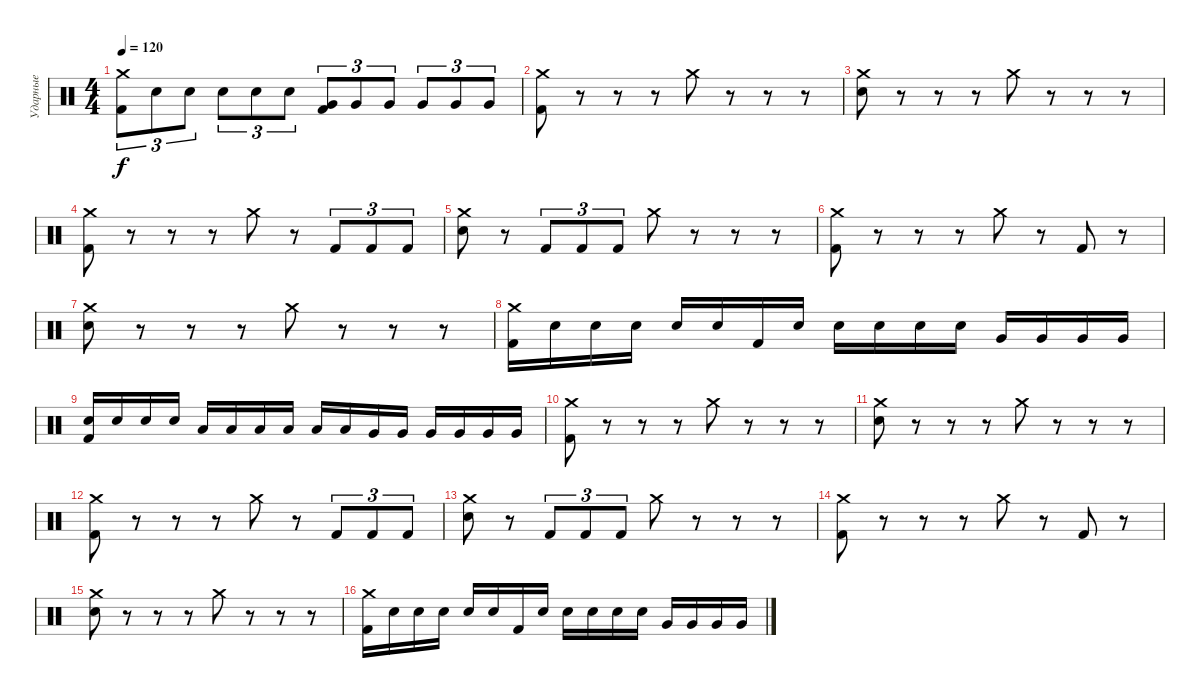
\track ("Ударные" "Ударные") {instrument percussion}
\staff {score}
\articulation defaults
\ts (4 4)
\tempo 120
\clef neutral
\ks c
("Crash medium (hit)" "Kick (hit) 2").8{tu (3 2) dy f} "Snare (hit) 2".8{tu (3 2)} "Snare (hit) 2".8{tu (3 2)} "Snare (hit) 2".8{tu (3 2)} "Snare (hit) 2".8{tu (3 2)} "Snare (hit) 2".8{tu (3 2)} ("Very Low Tom (hit)" "Kick (hit) 2").8{tu (3 2)} "Very Low Tom (hit)".8{tu (3 2)} "Very Low Tom (hit)".8{tu (3 2)} "Very Low Tom (hit)".8{tu (3 2)} "Very Low Tom (hit)".8{tu (3 2)} "Very Low Tom (hit)".8{tu (3 2)} |
("Crash medium (hit)" "Kick (hit) 2").8 r.8 r.8 r.8 "Crash medium (hit)".8 r.8 r.8 r.8 |
("Crash medium (hit)" "Snare (hit) 2").8 r.8 r.8 r.8 "Crash medium (hit)".8 r.8 r.8 r.8 |
("Crash medium (hit)" "Kick (hit) 2").8 r.8 r.8 r.8 "Crash medium (hit)".8 r.8 "Kick (hit) 2".8{tu (3 2)} "Kick (hit) 2".8{tu (3 2)} "Kick (hit) 2".8{tu (3 2)} |
("Crash medium (hit)" "Snare (hit) 2").8 r.8 "Kick (hit) 2".8{tu (3 2)} "Kick (hit) 2".8{tu (3 2)} "Kick (hit) 2".8{tu (3 2)} "Crash medium (hit)".8 r.8 r.8 r.8 |
("Crash medium (hit)" "Kick (hit) 2").8 r.8 r.8 r.8 "Crash medium (hit)".8 r.8 "Kick (hit) 2".8 r.8 |
("Crash medium (hit)" "Snare (hit) 2").8 r.8 r.8 r.8 "Crash medium (hit)".8 r.8 r.8 r.8 |
("Crash medium (hit)" "Kick (hit) 2").16 "Snare (hit) 2".16 "Snare (hit) 2".16 "Snare (hit) 2".16 "Snare (hit) 2".16 "Snare (hit) 2".16 "Kick (hit) 2".16 "Snare (hit) 2".16 "Snare (hit) 2".16 "Snare (hit) 2".16 "Snare (hit) 2".16 "Snare (hit) 2".16 "Very Low Tom (hit)".16 "Very Low Tom (hit)".16 "Very Low Tom (hit)".16 "Very Low Tom (hit)".16 |
("Snare (hit) 2" "Kick (hit) 2").16 "Snare (hit) 2".16 "Snare (hit) 2".16 "Snare (hit) 2".16 "Low Tom (hit)".16 "Low Tom (hit)".16 "Low Tom (hit)".16 "Low Tom (hit)".16 "Low Tom (hit)".16 "Low Tom (hit)".16 "Very Low Tom (hit)".16 "Very Low Tom (hit)".16 "Very Low Tom (hit)".16 "Very Low Tom (hit)".16 "Very Low Tom (hit)".16 "Very Low Tom (hit)".16 |
("Crash medium (hit)" "Kick (hit) 2").8 r.8 r.8 r.8 "Crash medium (hit)".8 r.8 r.8 r.8 |
("Crash medium (hit)" "Snare (hit) 2").8 r.8 r.8 r.8 "Crash medium (hit)".8 r.8 r.8 r.8 |
("Crash medium (hit)" "Kick (hit) 2").8 r.8 r.8 r.8 "Crash medium (hit)".8 r.8 "Kick (hit) 2".8{tu (3 2)} "Kick (hit) 2".8{tu (3 2)} "Kick (hit) 2".8{tu (3 2)} |
("Crash medium (hit)" "Snare (hit) 2").8 r.8 "Kick (hit) 2".8{tu (3 2)} "Kick (hit) 2".8{tu (3 2)} "Kick (hit) 2".8{tu (3 2)} "Crash medium (hit)".8 r.8 r.8 r.8 |
("Crash medium (hit)" "Kick (hit) 2").8 r.8 r.8 r.8 "Crash medium (hit)".8 r.8 "Kick (hit) 2".8 r.8 |
("Crash medium (hit)" "Snare (hit) 2").8 r.8 r.8 r.8 "Crash medium (hit)".8 r.8 r.8 r.8 |
("Crash medium (hit)" "Kick (hit) 2").16 "Snare (hit) 2".16 "Snare (hit) 2".16 "Snare (hit) 2".16 "Snare (hit) 2".16 "Snare (hit) 2".16 "Kick (hit) 2".16 "Snare (hit) 2".16 "Snare (hit) 2".16 "Snare (hit) 2".16 "Snare (hit) 2".16 "Snare (hit) 2".16 "Very Low Tom (hit)".16 "Very Low Tom (hit)".16 "Very Low Tom (hit)".16 "Very Low Tom (hit)".16
